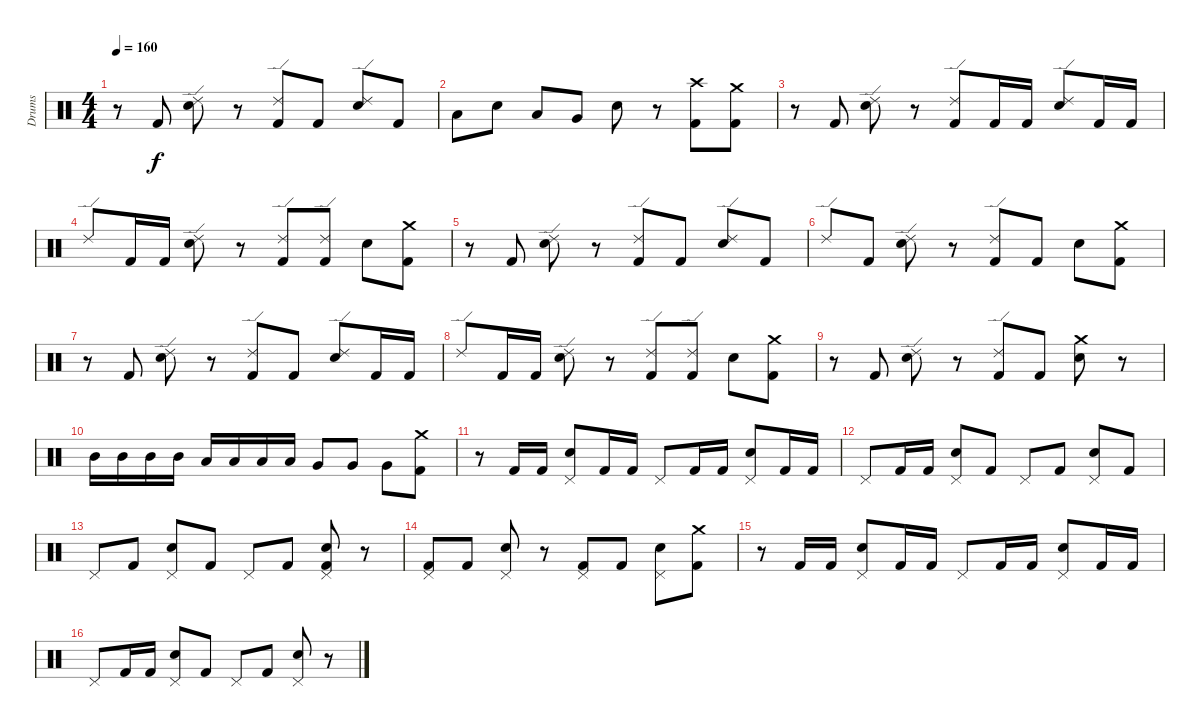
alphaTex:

\track ("Drums" "Drums") {instrument percussion}
\staff {score}
\articulation defaults
\ts (4 4)
\tempo 160
\clef neutral
\ks c
r.8{dy f} "Kick (hit) 2".8 ("Ride (edge) 2" "Snare (hit) 2").8 r.8 ("Ride (edge) 2" "Kick (hit) 2").8 "Kick (hit) 2".8 ("Ride (edge) 2" "Snare (hit) 2").8 "Kick (hit) 2".8 |
"Low Tom (hit)".8 "Snare (hit) 2".8 "Low Tom (hit)".8 "Very Low Tom (hit)".8 "Snare (hit) 2".8 r.8 ("Crash high (hit)" "Kick (hit) 2").8 ("Crash medium (hit)" "Kick (hit) 2").8 |
r.8 "Kick (hit) 2".8 ("Ride (edge) 2" "Snare (hit) 2").8 r.8 ("Ride (edge) 2" "Kick (hit) 2").8 "Kick (hit) 2".16 "Kick (hit) 2".16 ("Ride (edge) 2" "Snare (hit) 2").8 "Kick (hit) 2".16 "Kick (hit) 2".16 |
"Ride (edge) 2".8 "Kick (hit) 2".16 "Kick (hit) 2".16 ("Ride (edge) 2" "Snare (hit) 2").8 r.8 ("Ride (edge) 2" "Kick (hit) 2").8 ("Ride (edge) 2" "Kick (hit) 2").8 "Snare (hit) 2".8 ("Crash medium (hit)" "Kick (hit) 2").8 |
r.8 "Kick (hit) 2".8 ("Ride (edge) 2" "Snare (hit) 2").8 r.8 ("Ride (edge) 2" "Kick (hit) 2").8 "Kick (hit) 2".8 ("Ride (edge) 2" "Snare (hit) 2").8 "Kick (hit) 2".8 |
"Ride (edge) 2".8 "Kick (hit) 2".8 ("Ride (edge) 2" "Snare (hit) 2").8 r.8 ("Ride (edge) 2" "Kick (hit) 2").8 "Kick (hit) 2".8 "Snare (hit) 2".8 ("Crash medium (hit)" "Kick (hit) 2").8 |
r.8 "Kick (hit) 2".8 ("Ride (edge) 2" "Snare (hit) 2").8 r.8 ("Ride (edge) 2" "Kick (hit) 2").8 "Kick (hit) 2".8 ("Ride (edge) 2" "Snare (hit) 2").8 "Kick (hit) 2".16 "Kick (hit) 2".16 |
"Ride (edge) 2".8 "Kick (hit) 2".16 "Kick (hit) 2".16 ("Ride (edge) 2" "Snare (hit) 2").8 r.8 ("Ride (edge) 2" "Kick (hit) 2").8 ("Ride (edge) 2" "Kick (hit) 2").8 "Snare (hit) 2".8 ("Crash medium (hit)" "Kick (hit) 2").8 |
r.8 "Kick (hit) 2".8 ("Ride (edge) 2" "Snare (hit) 2").8 r.8 ("Ride (edge) 2" "Kick (hit) 2").8 "Kick (hit) 2".8 ("Crash medium (hit)" "Snare (hit) 2").8 r.8 |
"Mid Tom (hit)".16 "Mid Tom (hit)".16 "Mid Tom (hit)".16 "Mid Tom (hit)".16 "Low Tom (hit)".16 "Low Tom (hit)".16 "Low Tom (hit)".16 "Low Tom (hit)".16 "Very Low Tom (hit)".8 "Very Low Tom (hit)".8 "Very Low Tom (hit)".8 ("Crash medium (hit)" "Kick (hit) 2").8 |
r.8 "Kick (hit) 2".16 "Kick (hit) 2".16 ("Pedal Hi-Hat (hit)" "Snare (hit) 2").8 "Kick (hit) 2".16 "Kick (hit) 2".16 "Pedal Hi-Hat (hit)".8 "Kick (hit) 2".16 "Kick (hit) 2".16 ("Pedal Hi-Hat (hit)" "Snare (hit) 2").8 "Kick (hit) 2".16 "Kick (hit) 2".16 |
"Pedal Hi-Hat (hit)".8 "Kick (hit) 2".16 "Kick (hit) 2".16 ("Pedal Hi-Hat (hit)" "Snare (hit) 2").8 "Kick (hit) 2".8 "Pedal Hi-Hat (hit)".8 "Kick (hit) 2".8 ("Pedal Hi-Hat (hit)" "Snare (hit) 2").8 "Kick (hit) 2".8 |
"Pedal Hi-Hat (hit)".8 "Kick (hit) 2".8 ("Pedal Hi-Hat (hit)" "Snare (hit) 2").8 "Kick (hit) 2".8 "Pedal Hi-Hat (hit)".8 "Kick (hit) 2".8 ("Pedal Hi-Hat (hit)" "Snare (hit) 2" "Kick (hit) 2").8 r.8 |
("Pedal Hi-Hat (hit)" "Kick (hit) 2").8 "Kick (hit) 2".8 ("Pedal Hi-Hat (hit)" "Snare (hit) 2").8 r.8 ("Pedal Hi-Hat (hit)" "Kick (hit) 2").8 "Kick (hit) 2".8 ("Pedal Hi-Hat (hit)" "Snare (hit) 2").8 ("Crash medium (hit)" "Kick (hit) 2").8 |
r.8 "Kick (hit) 2".16 "Kick (hit) 2".16 ("Pedal Hi-Hat (hit)" "Snare (hit) 2").8 "Kick (hit) 2".16 "Kick (hit) 2".16 "Pedal Hi-Hat (hit)".8 "Kick (hit) 2".16 "Kick (hit) 2".16 ("Pedal Hi-Hat (hit)" "Snare (hit) 2").8 "Kick (hit) 2".16 "Kick (hit) 2".16 |
"Pedal Hi-Hat (hit)".8 "Kick (hit) 2".16 "Kick (hit) 2".16 ("Pedal Hi-Hat (hit)" "Snare (hit) 2").8 "Kick (hit) 2".8 "Pedal Hi-Hat (hit)".8 "Kick (hit) 2".8 ("Pedal Hi-Hat (hit)" "Snare (hit) 2").8 r.8
